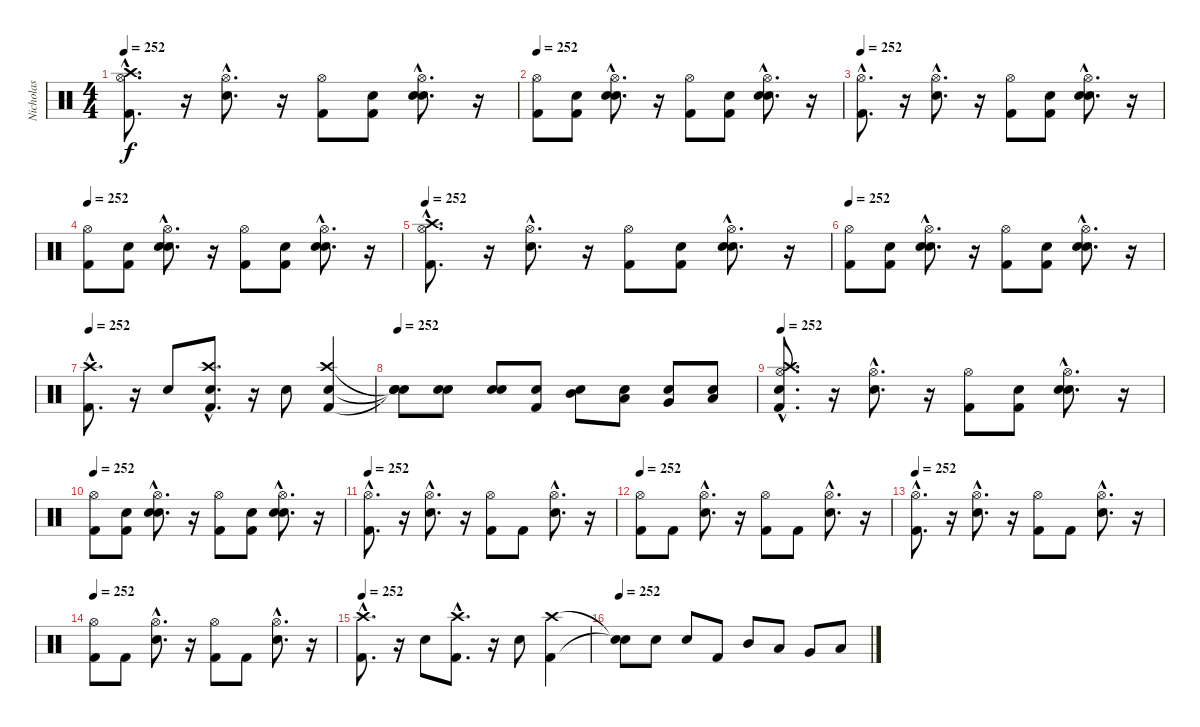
\track ("Nicholas" "Nicholas") {instrument percussion}
\staff {score}
\articulation defaults
\ts (4 4)
\tempo 252
\clef neutral
\ks c
("Kick (hit) 2"{hac} "Hi-Hat (open)"{hac} "Crash high (hit)"{hac}).8{d dy f} r.16 ("Snare (hit) 2"{hac} "Hi-Hat (open)"{hac}).8{d} r.16 ("Kick (hit) 2" "Hi-Hat (open)").8 ("Snare (hit)" "Kick (hit) 2").8 ("Snare (hit)"{hac} "Snare (hit) 2"{hac} "Hi-Hat (open)"{hac}).8{d} r.16 |
\tempo 252
("Kick (hit) 2" "Hi-Hat (open)").8 ("Snare (hit)" "Kick (hit) 2").8 ("Snare (hit)"{hac} "Snare (hit) 2"{hac} "Hi-Hat (open)"{hac}).8{d} r.16 ("Kick (hit) 2" "Hi-Hat (open)").8 ("Snare (hit)" "Kick (hit) 2").8 ("Snare (hit)"{hac} "Snare (hit) 2"{hac} "Hi-Hat (open)"{hac}).8{d} r.16 |
\tempo 252
("Kick (hit) 2"{hac} "Hi-Hat (open)"{hac}).8{d} r.16 ("Snare (hit) 2"{hac} "Hi-Hat (open)"{hac}).8{d} r.16 ("Kick (hit) 2" "Hi-Hat (open)").8 ("Snare (hit)" "Kick (hit) 2").8 ("Snare (hit)"{hac} "Snare (hit) 2"{hac} "Hi-Hat (open)"{hac}).8{d} r.16 |
\tempo 252
("Kick (hit) 2" "Hi-Hat (open)").8 ("Snare (hit)" "Kick (hit) 2").8 ("Snare (hit)"{hac} "Snare (hit) 2"{hac} "Hi-Hat (open)"{hac}).8{d} r.16 ("Kick (hit) 2" "Hi-Hat (open)").8 ("Snare (hit)" "Kick (hit) 2").8 ("Snare (hit)"{hac} "Snare (hit) 2"{hac} "Hi-Hat (open)"{hac}).8{d} r.16 |
\tempo 252
("Kick (hit) 2"{hac} "Hi-Hat (open)"{hac} "Crash high (hit)"{hac}).8{d} r.16 ("Snare (hit) 2"{hac} "Hi-Hat (open)"{hac}).8{d} r.16 ("Kick (hit) 2" "Hi-Hat (open)").8 ("Snare (hit)" "Kick (hit) 2").8 ("Snare (hit)"{hac} "Snare (hit) 2"{hac} "Hi-Hat (open)"{hac}).8{d} r.16 |
\tempo 252
("Kick (hit) 2" "Hi-Hat (open)").8 ("Snare (hit)" "Kick (hit) 2").8 ("Snare (hit)"{hac} "Snare (hit) 2"{hac} "Hi-Hat (open)"{hac}).8{d} r.16 ("Kick (hit) 2" "Hi-Hat (open)").8 ("Snare (hit)" "Kick (hit) 2").8 ("Snare (hit)"{hac} "Snare (hit) 2"{hac} "Hi-Hat (open)"{hac}).8{d} r.16 |
\tempo 252
("Kick (hit) 2"{hac} "Crash high (hit)"{hac}).8{d} r.16 "Snare (hit) 2".8 ("Snare (hit)"{hac} "Kick (hit) 2"{hac} "Crash high (hit)"{hac}).8{d} r.16 "Snare (hit) 2".8 ("Snare (hit)" "Kick (hit) 2" "Crash high (hit)").4 |
\tempo 252
("Snare (hit)"{t} "Snare (hit)"{t} "Snare (hit)"{t}).8 ("Snare (hit)" "Snare (hit) 2").8 ("Snare (hit)" "Snare (hit) 2").8 ("Snare (hit)" "Kick (hit) 2").8 ("Snare (hit)" "Mid Tom (hit)").8 ("Snare (hit)" "Low Tom (hit)").8 ("Snare (hit)" "Very Low Tom (hit)").8 ("Snare (hit)" "Low Floor Tom (hit)").8 |
\tempo 252
("Snare (hit)"{hac} "Kick (hit) 2"{hac} "Hi-Hat (open)"{hac} "Crash high (hit)"{hac}).8{d} r.16 ("Snare (hit) 2"{hac} "Hi-Hat (open)"{hac}).8{d} r.16 ("Kick (hit) 2" "Hi-Hat (open)").8 ("Snare (hit)" "Kick (hit) 2").8 ("Snare (hit)"{hac} "Snare (hit) 2"{hac} "Hi-Hat (open)"{hac}).8{d} r.16 |
\tempo 252
("Kick (hit) 2" "Hi-Hat (open)").8 ("Snare (hit)" "Kick (hit) 2").8 ("Snare (hit)"{hac} "Snare (hit) 2"{hac} "Hi-Hat (open)"{hac}).8{d} r.16 ("Kick (hit) 2" "Hi-Hat (open)").8 ("Snare (hit)" "Kick (hit) 2").8 ("Snare (hit)"{hac} "Snare (hit) 2"{hac} "Hi-Hat (open)"{hac}).8{d} r.16 |
\tempo 252
("Kick (hit) 2"{hac} "Hi-Hat (open)"{hac}).8{d} r.16 ("Snare (hit) 2"{hac} "Hi-Hat (open)"{hac}).8{d} r.16 ("Kick (hit) 2" "Hi-Hat (open)").8 "Kick (hit) 2".8 ("Snare (hit) 2"{hac} "Hi-Hat (open)"{hac}).8{d} r.16 |
\tempo 252
("Kick (hit) 2" "Hi-Hat (open)").8 "Kick (hit) 2".8 ("Snare (hit) 2"{hac} "Hi-Hat (open)"{hac}).8{d} r.16 ("Kick (hit) 2" "Hi-Hat (open)").8 "Kick (hit) 2".8 ("Snare (hit) 2"{hac} "Hi-Hat (open)"{hac}).8{d} r.16 |
\tempo 252
("Kick (hit) 2"{hac} "Hi-Hat (open)"{hac}).8{d} r.16 ("Snare (hit) 2"{hac} "Hi-Hat (open)"{hac}).8{d} r.16 ("Kick (hit) 2" "Hi-Hat (open)").8 "Kick (hit) 2".8 ("Snare (hit) 2"{hac} "Hi-Hat (open)"{hac}).8{d} r.16 |
\tempo 252
("Kick (hit) 2" "Hi-Hat (open)").8 "Kick (hit) 2".8 ("Snare (hit) 2"{hac} "Hi-Hat (open)"{hac}).8{d} r.16 ("Kick (hit) 2" "Hi-Hat (open)").8 "Kick (hit) 2".8 ("Snare (hit) 2"{hac} "Hi-Hat (open)"{hac}).8{d} r.16 |
\tempo 252
("Kick (hit) 2"{hac} "Crash high (hit)"{hac}).8{d} r.16 "Snare (hit) 2".8 ("Kick (hit) 2"{hac} "Crash high (hit)"{hac}).8{d} r.16 "Snare (hit) 2".8 ("Kick (hit) 2" "Crash high (hit)").4 |
\tempo 252
("Snare (hit)"{t} "Snare (hit)"{t}).8 "Snare (hit) 2".8 "Snare (hit) 2".8 "Kick (hit) 2".8 "Mid Tom (hit)".8 "Low Tom (hit)".8 "Very Low Tom (hit)".8 "Low Floor Tom (hit)".8
